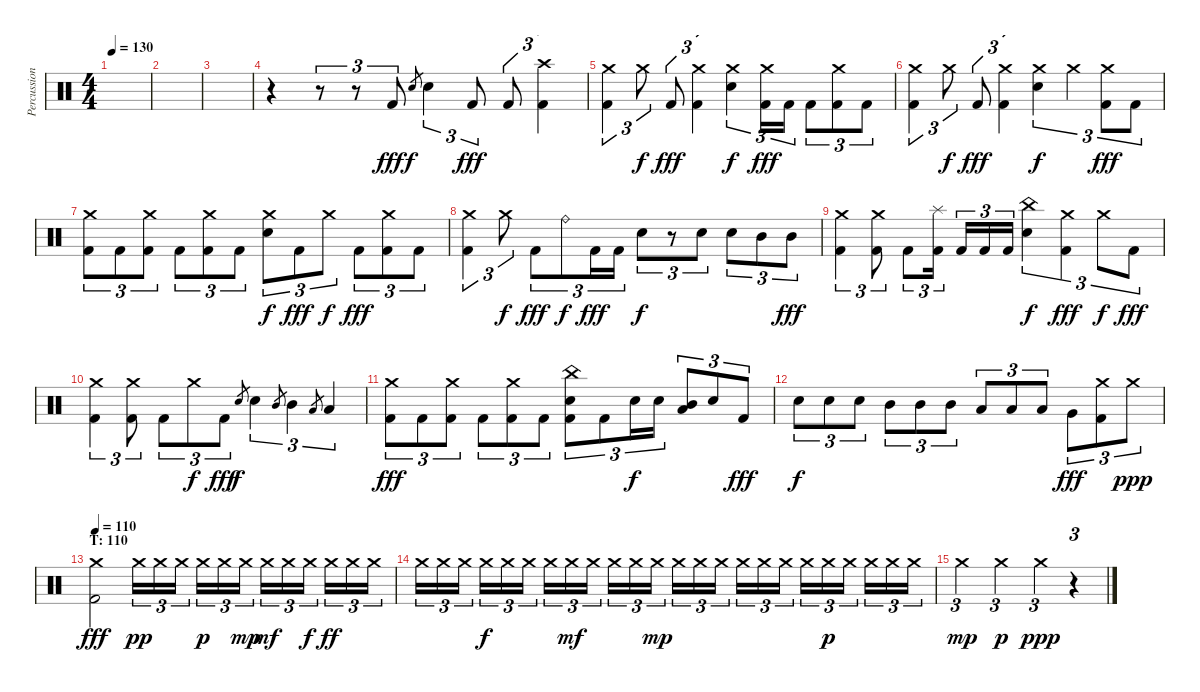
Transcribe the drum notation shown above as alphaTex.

\track ("Percussion" "Percussion") {instrument percussion}
\staff {score}
\articulation defaults
\ts (4 4)
\tempo 130
\clef neutral
\ks c
|
|
|
r.4 r.8{tu (3 2)} r.8{tu (3 2)} "Kick (hit) 2".8{tu (3 2) dy fff} "Electric Snare (hit)".8{gr dy f} "Electric Snare (hit)".4{tu (3 2)} "Kick (hit) 2".8{tu (3 2) dy fff} "Kick (hit) 2".8{tu (3 2)} ("Crash high (hit)" "Kick (hit) 2").4{tu (3 2)} |
("Crash medium (hit)" "Kick (hit) 2").4{tu (3 2)} "Crash medium (hit)".8{tu (3 2) dy f} "Kick (hit) 2".8{tu (3 2) dy fff} ("Crash medium (hit)" "Kick (hit) 2").4{tu (3 2)} ("Crash medium (hit)" "Electric Snare (hit)").4{tu (3 2) dy f} ("Crash medium (hit)" "Kick (hit) 2").16{tu (3 2) dy fff} "Kick (hit) 2".16{tu (3 2)} "Kick (hit) 2".8{tu (3 2)} ("Crash medium (hit)" "Kick (hit) 2").8{tu (3 2)} "Kick (hit) 2".8{tu (3 2)} |
("Crash medium (hit)" "Kick (hit) 2").4{tu (3 2)} "Crash medium (hit)".8{tu (3 2) dy f} "Kick (hit) 2".8{tu (3 2) dy fff} ("Crash medium (hit)" "Kick (hit) 2").4{tu (3 2)} ("Crash medium (hit)" "Electric Snare (hit)").4{tu (3 2) dy f} "Crash medium (hit)".4{tu (3 2)} ("Crash medium (hit)" "Kick (hit) 2").8{tu (3 2) dy fff} "Kick (hit) 2".8{tu (3 2)} |
("Crash medium (hit)" "Kick (hit) 2").8{tu (3 2)} "Kick (hit) 2".8{tu (3 2)} ("Crash medium (hit)" "Kick (hit) 2").8{tu (3 2)} "Kick (hit) 2".8{tu (3 2)} ("Crash medium (hit)" "Kick (hit) 2").8{tu (3 2)} "Kick (hit) 2".8{tu (3 2)} ("Crash medium (hit)" "Electric Snare (hit)").8{tu (3 2) dy f} "Kick (hit) 2".8{tu (3 2) dy fff} "Crash medium (hit)".8{tu (3 2) dy f} "Kick (hit) 2".8{tu (3 2) dy fff} ("Crash medium (hit)" "Kick (hit) 2").8{tu (3 2)} "Kick (hit) 2".8{tu (3 2)} |
("Crash medium (hit)" "Kick (hit) 2").4{tu (3 2)} "Crash medium (hit)".8{tu (3 2) dy f} "Kick (hit) 2".8{tu (3 2) dy fff} "Ride (bell)".8{tu (3 2) dy f} "Kick (hit) 2".16{tu (3 2) dy fff} "Kick (hit) 2".16{tu (3 2)} "Electric Snare (hit)".8{tu (3 2) dy f} r.8{tu (3 2)} "Electric Snare (hit)".8{tu (3 2)} "Electric Snare (hit)".8{tu (3 2)} "Mid Tom (hit)".8{tu (3 2)} "Mid Tom (hit)".8{tu (3 2) dy fff} |
("Crash medium (hit)" "Kick (hit) 2").4{tu (3 2)} ("Crash medium (hit)" "Kick (hit) 2").8{tu (3 2)} "Kick (hit) 2".8{tu (3 2)} ("Splash (hit)" "Kick (hit) 2").16{tu (3 2)} "Kick (hit) 2".16{tu (3 2)} "Kick (hit) 2".16{tu (3 2)} "Kick (hit) 2".16{tu (3 2)} ("China (hit)" "Electric Snare (hit)").4{tu (3 2) dy f} ("Crash medium (hit)" "Kick (hit) 2").4{tu (3 2) dy fff} "Crash medium (hit)".8{tu (3 2) dy f} "Kick (hit) 2".8{tu (3 2) dy fff} |
("Crash medium (hit)" "Kick (hit) 2").4{tu (3 2)} ("Crash medium (hit)" "Kick (hit) 2").8{tu (3 2)} "Kick (hit) 2".8{tu (3 2)} "Crash medium (hit)".8{tu (3 2) dy f} "Kick (hit) 2".8{tu (3 2) dy fff} "Electric Snare (hit)".8{gr dy f} "Electric Snare (hit)".4{tu (3 2)} "Mid Tom (hit)".8{gr} "Mid Tom (hit)".4{tu (3 2)} "Low Tom (hit)".8{gr} "Low Tom (hit)".4{tu (3 2)} |
("Crash medium (hit)" "Kick (hit) 2").8{tu (3 2) dy fff} "Kick (hit) 2".8{tu (3 2)} ("Crash medium (hit)" "Kick (hit) 2").8{tu (3 2)} "Kick (hit) 2".8{tu (3 2)} ("Crash medium (hit)" "Kick (hit) 2").8{tu (3 2)} "Kick (hit) 2".8{tu (3 2)} ("China (hit)" "Electric Snare (hit)" "Kick (hit) 2").8{tu (3 2)} "Kick (hit) 2".8{tu (3 2)} "Electric Snare (hit)".16{tu (3 2) dy f} "Electric Snare (hit)".16{tu (3 2)} ("Mid Tom (hit)" "Low Tom (hit)").8{tu (3 2)} "Electric Snare (hit)".8{tu (3 2)} "Kick (hit) 2".8{tu (3 2) dy fff} |
"Electric Snare (hit)".8{tu (3 2) dy f} "Electric Snare (hit)".8{tu (3 2)} "Electric Snare (hit)".8{tu (3 2)} "Mid Tom (hit)".8{tu (3 2)} "Mid Tom (hit)".8{tu (3 2)} "Mid Tom (hit)".8{tu (3 2)} "Low Tom (hit)".8{tu (3 2)} "Low Tom (hit)".8{tu (3 2)} "Low Tom (hit)".8{tu (3 2)} "Very Low Tom (hit)".8{tu (3 2) dy fff} ("Crash medium (hit)" "Kick (hit) 2").8{tu (3 2)} "Crash medium (hit)".8{tu (3 2) dy ppp} |
\section ("" "T: 110")
\tempo 110
("Crash medium (hit)" "Kick (hit) 2").2{dy fff} "Crash medium (hit)".16{tu (3 2) dy pp} "Crash medium (hit)".16{tu (3 2)} "Crash medium (hit)".16{tu (3 2)} "Crash medium (hit)".16{tu (3 2) dy p} "Crash medium (hit)".16{tu (3 2)} "Crash medium (hit)".16{tu (3 2) dy mp} "Crash medium (hit)".16{tu (3 2) dy mf} "Crash medium (hit)".16{tu (3 2)} "Crash medium (hit)".16{tu (3 2) dy f} "Crash medium (hit)".16{tu (3 2) dy ff} "Crash medium (hit)".16{tu (3 2)} "Crash medium (hit)".16{tu (3 2)} |
"Crash medium (hit)".16{tu (3 2)} "Crash medium (hit)".16{tu (3 2)} "Crash medium (hit)".16{tu (3 2)} "Crash medium (hit)".16{tu (3 2) dy f} "Crash medium (hit)".16{tu (3 2)} "Crash medium (hit)".16{tu (3 2)} "Crash medium (hit)".16{tu (3 2)} "Crash medium (hit)".16{tu (3 2) dy mf} "Crash medium (hit)".16{tu (3 2)} "Crash medium (hit)".16{tu (3 2)} "Crash medium (hit)".16{tu (3 2)} "Crash medium (hit)".16{tu (3 2) dy mp} "Crash medium (hit)".16{tu (3 2)} "Crash medium (hit)".16{tu (3 2)} "Crash medium (hit)".16{tu (3 2)} "Crash medium (hit)".16{tu (3 2)} "Crash medium (hit)".16{tu (3 2)} "Crash medium (hit)".16{tu (3 2)} "Crash medium (hit)".16{tu (3 2)} "Crash medium (hit)".16{tu (3 2) dy p} "Crash medium (hit)".16{tu (3 2)} "Crash medium (hit)".16{tu (3 2)} "Crash medium (hit)".16{tu (3 2)} "Crash medium (hit)".16{tu (3 2)} |
"Crash medium (hit)".2{tu (3 2) dy mp} "Crash medium (hit)".2{tu (3 2) dy p} "Crash medium (hit)".4{tu (3 2) dy ppp} r.4{tu (3 2)}
